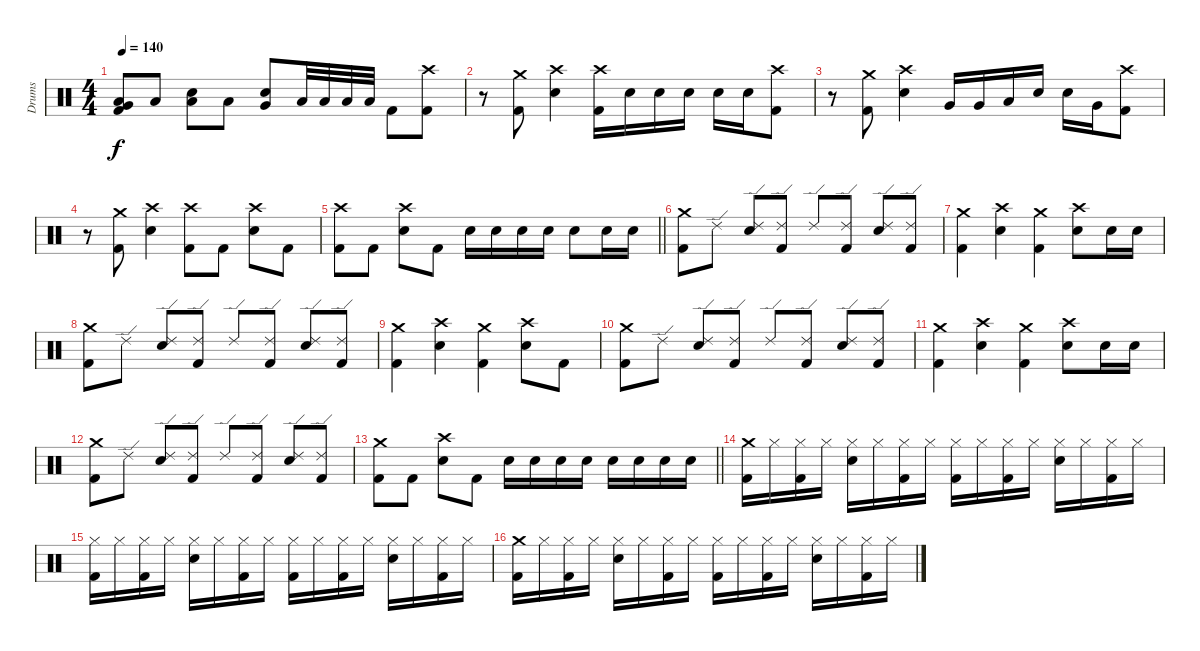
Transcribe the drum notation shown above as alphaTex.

\track ("Drums" "Drums") {instrument percussion}
\staff {score}
\articulation defaults
\ts (4 4)
\tempo 140
\clef neutral
\ks c
("Very Low Tom (hit)" "Low Floor Tom (hit)" "Kick (hit) 2").8{dy f} "Low Floor Tom (hit)".8 ("Electric Snare (hit)" "Low Floor Tom (hit)").8 "Low Floor Tom (hit)".8 ("Electric Snare (hit)" "Very Low Tom (hit)").8 "Low Tom (hit)".32 "Low Tom (hit)".32 "Low Tom (hit)".32 "Low Tom (hit)".32 "Kick (hit) 2".8 ("Crash high (hit)" "Kick (hit) 2").8 |
r.8 ("Crash medium (hit)" "Kick (hit) 2").8 ("Crash high (hit)" "Electric Snare (hit)").4 ("Crash high (hit)" "Kick (hit) 2").16 "Electric Snare (hit)".16 "Electric Snare (hit)".16 "Electric Snare (hit)".16 "Electric Snare (hit)".16 "Electric Snare (hit)".16 ("Crash high (hit)" "Kick (hit) 2").8 |
r.8 ("Crash medium (hit)" "Kick (hit) 2").8 ("Crash high (hit)" "Electric Snare (hit)").4 "Very Low Tom (hit)".16 "Very Low Tom (hit)".16 "Low Tom (hit)".16 "Electric Snare (hit)".16 "Electric Snare (hit)".16 "Very Low Tom (hit)".16 ("Crash high (hit)" "Kick (hit) 2").8 |
r.8 ("Crash medium (hit)" "Kick (hit) 2").8 ("Crash high (hit)" "Electric Snare (hit)").4 ("Crash high (hit)" "Kick (hit) 2").8 "Kick (hit) 2".8 ("Crash high (hit)" "Electric Snare (hit)").8 "Kick (hit) 2".8 |
\barLineRight lightlight
("Crash high (hit)" "Kick (hit) 2").8 "Kick (hit) 2".8 ("Crash high (hit)" "Electric Snare (hit)").8 "Kick (hit) 2".8 "Electric Snare (hit)".16 "Electric Snare (hit)".16 "Electric Snare (hit)".16 "Electric Snare (hit)".16 "Electric Snare (hit)".8 "Electric Snare (hit)".16 "Electric Snare (hit)".16 |
("Crash medium (hit)" "Kick (hit) 2").8 "Ride (edge) 2".8 ("Ride (edge) 2" "Electric Snare (hit)").8 ("Ride (edge) 2" "Kick (hit) 2").8 "Ride (edge) 2".8 ("Ride (edge) 2" "Kick (hit) 2").8 ("Ride (edge) 2" "Electric Snare (hit)").8 ("Ride (edge) 2" "Kick (hit) 2").8 |
("Crash medium (hit)" "Kick (hit) 2").4 ("Crash high (hit)" "Electric Snare (hit)").4 ("Crash medium (hit)" "Kick (hit) 2").4 ("Crash high (hit)" "Electric Snare (hit)").8 "Electric Snare (hit)".16 "Electric Snare (hit)".16 |
("Crash medium (hit)" "Kick (hit) 2").8 "Ride (edge) 2".8 ("Ride (edge) 2" "Electric Snare (hit)").8 ("Ride (edge) 2" "Kick (hit) 2").8 "Ride (edge) 2".8 ("Ride (edge) 2" "Kick (hit) 2").8 ("Ride (edge) 2" "Electric Snare (hit)").8 ("Ride (edge) 2" "Kick (hit) 2").8 |
("Crash medium (hit)" "Kick (hit) 2").4 ("Crash high (hit)" "Electric Snare (hit)").4 ("Crash medium (hit)" "Kick (hit) 2").4 ("Crash high (hit)" "Electric Snare (hit)").8 "Kick (hit) 2".8 |
("Crash medium (hit)" "Kick (hit) 2").8 "Ride (edge) 2".8 ("Ride (edge) 2" "Electric Snare (hit)").8 ("Ride (edge) 2" "Kick (hit) 2").8 "Ride (edge) 2".8 ("Ride (edge) 2" "Kick (hit) 2").8 ("Ride (edge) 2" "Electric Snare (hit)").8 ("Ride (edge) 2" "Kick (hit) 2").8 |
("Crash medium (hit)" "Kick (hit) 2").4 ("Crash high (hit)" "Electric Snare (hit)").4 ("Crash medium (hit)" "Kick (hit) 2").4 ("Crash high (hit)" "Electric Snare (hit)").8 "Electric Snare (hit)".16 "Electric Snare (hit)".16 |
("Crash medium (hit)" "Kick (hit) 2").8 "Ride (edge) 2".8 ("Ride (edge) 2" "Electric Snare (hit)").8 ("Ride (edge) 2" "Kick (hit) 2").8 "Ride (edge) 2".8 ("Ride (edge) 2" "Kick (hit) 2").8 ("Ride (edge) 2" "Electric Snare (hit)").8 ("Ride (edge) 2" "Kick (hit) 2").8 |
\barLineRight lightlight
("Crash medium (hit)" "Kick (hit) 2").8 "Kick (hit) 2".8 ("Crash high (hit)" "Electric Snare (hit)").8 "Kick (hit) 2".8 "Electric Snare (hit)".16 "Electric Snare (hit)".16 "Electric Snare (hit)".16 "Electric Snare (hit)".16 "Electric Snare (hit)".16 "Electric Snare (hit)".16 "Electric Snare (hit)".16 "Electric Snare (hit)".16 |
("Crash medium (hit)" "Kick (hit) 2").16 "Hi-Hat (closed)".16 ("Hi-Hat (closed)" "Kick (hit) 2").16 "Hi-Hat (closed)".16 ("Hi-Hat (closed)" "Electric Snare (hit)").16 "Hi-Hat (closed)".16 ("Hi-Hat (closed)" "Kick (hit) 2").16 "Hi-Hat (closed)".16 ("Hi-Hat (closed)" "Kick (hit) 2").16 "Hi-Hat (closed)".16 ("Hi-Hat (closed)" "Kick (hit) 2").16 "Hi-Hat (closed)".16 ("Hi-Hat (closed)" "Electric Snare (hit)").16 "Hi-Hat (closed)".16 ("Hi-Hat (closed)" "Kick (hit) 2").16 "Hi-Hat (closed)".16 |
("Hi-Hat (closed)" "Kick (hit) 2").16 "Hi-Hat (closed)".16 ("Hi-Hat (closed)" "Kick (hit) 2").16 "Hi-Hat (closed)".16 ("Hi-Hat (closed)" "Electric Snare (hit)").16 "Hi-Hat (closed)".16 ("Hi-Hat (closed)" "Kick (hit) 2").16 "Hi-Hat (closed)".16 ("Hi-Hat (closed)" "Kick (hit) 2").16 "Hi-Hat (closed)".16 ("Hi-Hat (closed)" "Kick (hit) 2").16 "Hi-Hat (closed)".16 ("Hi-Hat (closed)" "Electric Snare (hit)").16 "Hi-Hat (closed)".16 ("Hi-Hat (closed)" "Kick (hit) 2").16 "Hi-Hat (closed)".16 |
("Crash medium (hit)" "Kick (hit) 2").16 "Hi-Hat (closed)".16 ("Hi-Hat (closed)" "Kick (hit) 2").16 "Hi-Hat (closed)".16 ("Hi-Hat (closed)" "Electric Snare (hit)").16 "Hi-Hat (closed)".16 ("Hi-Hat (closed)" "Kick (hit) 2").16 "Hi-Hat (closed)".16 ("Hi-Hat (closed)" "Kick (hit) 2").16 "Hi-Hat (closed)".16 ("Hi-Hat (closed)" "Kick (hit) 2").16 "Hi-Hat (closed)".16 ("Hi-Hat (closed)" "Electric Snare (hit)").16 "Hi-Hat (closed)".16 ("Hi-Hat (closed)" "Kick (hit) 2").16 "Hi-Hat (closed)".16
